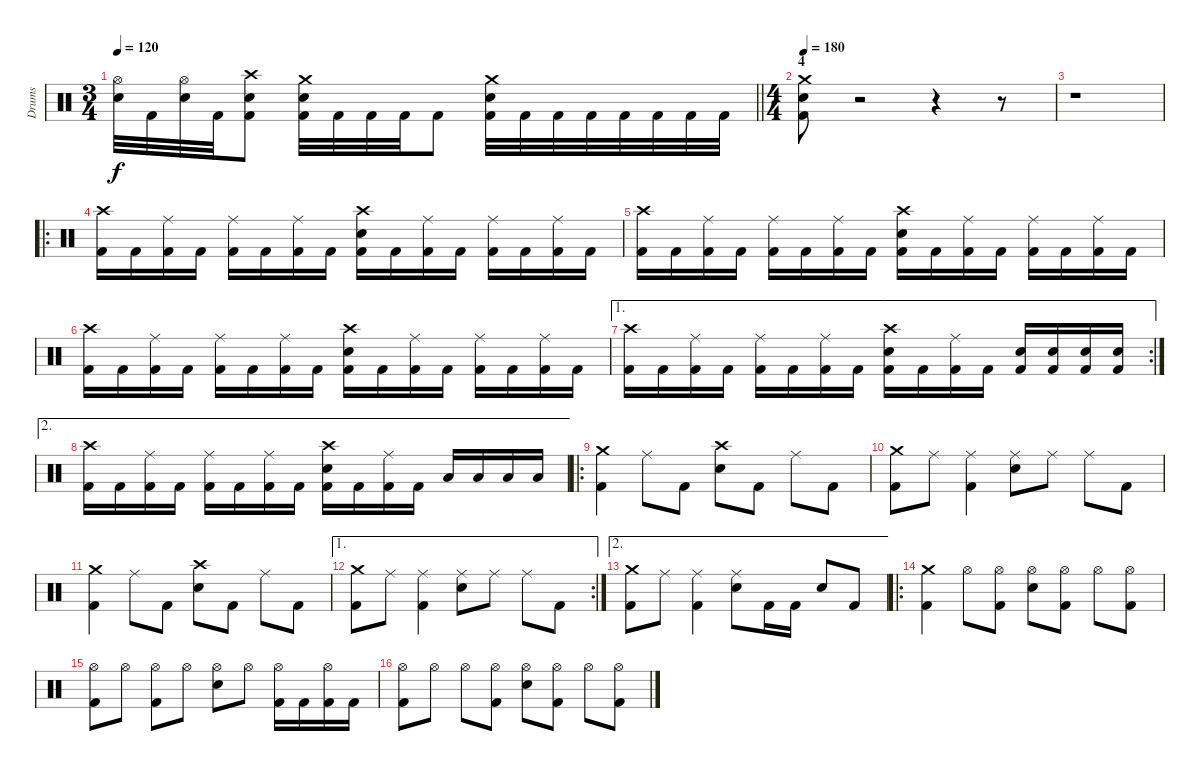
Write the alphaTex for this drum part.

\track ("Drums" "Drums") {instrument percussion}
\staff {score}
\articulation defaults
\ts (3 4)
\tempo 120
\clef neutral
\barLineRight lightlight
\ks c
("Hi-Hat (open)" "Electric Snare (hit)").32{dy f} "Kick (hit) 2".32 ("Hi-Hat (open)" "Electric Snare (hit)").32 "Kick (hit) 2".32 ("Electric Snare (hit)" "Crash high (hit)" "Kick (hit) 2").8 ("Crash medium (hit)" "Electric Snare (hit)" "Kick (hit) 2").32 "Kick (hit) 2".32 "Kick (hit) 2".32 "Kick (hit) 2".32 "Kick (hit) 2".8 ("Crash medium (hit)" "Electric Snare (hit)" "Kick (hit) 2").32 "Kick (hit) 2".32 "Kick (hit) 2".32 "Kick (hit) 2".32 "Kick (hit) 2".32 "Kick (hit) 2".32 "Kick (hit) 2".32 "Kick (hit) 2".32 |
\ts (4 4)
\section ("" "4")
\tempo 180
("Crash medium (hit)" "Electric Snare (hit)" "Kick (hit) 2").8 r.2 r.4 r.8 |
r.1 |
\ro
("Crash high (hit)" "Kick (hit) 2").16 "Kick (hit) 2".16 ("Ride (middle)" "Kick (hit) 2").16 "Kick (hit) 2".16 ("Ride (middle)" "Kick (hit) 2").16 "Kick (hit) 2".16 ("Ride (middle)" "Kick (hit) 2").16 "Kick (hit) 2".16 ("Electric Snare (hit)" "Crash high (hit)" "Kick (hit) 2").16 "Kick (hit) 2".16 ("Ride (middle)" "Kick (hit) 2").16 "Kick (hit) 2".16 ("Ride (middle)" "Kick (hit) 2").16 "Kick (hit) 2".16 ("Ride (middle)" "Kick (hit) 2").16 "Kick (hit) 2".16 |
("Crash high (hit)" "Kick (hit) 2").16 "Kick (hit) 2".16 ("Ride (middle)" "Kick (hit) 2").16 "Kick (hit) 2".16 ("Ride (middle)" "Kick (hit) 2").16 "Kick (hit) 2".16 ("Ride (middle)" "Kick (hit) 2").16 "Kick (hit) 2".16 ("Electric Snare (hit)" "Crash high (hit)" "Kick (hit) 2").16 "Kick (hit) 2".16 ("Ride (middle)" "Kick (hit) 2").16 "Kick (hit) 2".16 ("Ride (middle)" "Kick (hit) 2").16 "Kick (hit) 2".16 ("Ride (middle)" "Kick (hit) 2").16 "Kick (hit) 2".16 |
("Crash high (hit)" "Kick (hit) 2").16 "Kick (hit) 2".16 ("Ride (middle)" "Kick (hit) 2").16 "Kick (hit) 2".16 ("Ride (middle)" "Kick (hit) 2").16 "Kick (hit) 2".16 ("Ride (middle)" "Kick (hit) 2").16 "Kick (hit) 2".16 ("Electric Snare (hit)" "Crash high (hit)" "Kick (hit) 2").16 "Kick (hit) 2".16 ("Ride (middle)" "Kick (hit) 2").16 "Kick (hit) 2".16 ("Ride (middle)" "Kick (hit) 2").16 "Kick (hit) 2".16 ("Ride (middle)" "Kick (hit) 2").16 "Kick (hit) 2".16 |
\ae 1
\rc 2
("Crash high (hit)" "Kick (hit) 2").16 "Kick (hit) 2".16 ("Ride (middle)" "Kick (hit) 2").16 "Kick (hit) 2".16 ("Ride (middle)" "Kick (hit) 2").16 "Kick (hit) 2".16 ("Ride (middle)" "Kick (hit) 2").16 "Kick (hit) 2".16 ("Electric Snare (hit)" "Crash high (hit)" "Kick (hit) 2").16 "Kick (hit) 2".16 ("Ride (middle)" "Kick (hit) 2").16 "Kick (hit) 2".16 ("Electric Snare (hit)" "Kick (hit) 2").16 ("Electric Snare (hit)" "Kick (hit) 2").16 ("Electric Snare (hit)" "Kick (hit) 2").16 ("Electric Snare (hit)" "Kick (hit) 2").16 |
\ae 2
("Crash high (hit)" "Kick (hit) 2").16 "Kick (hit) 2".16 ("Ride (middle)" "Kick (hit) 2").16 "Kick (hit) 2".16 ("Ride (middle)" "Kick (hit) 2").16 "Kick (hit) 2".16 ("Ride (middle)" "Kick (hit) 2").16 "Kick (hit) 2".16 ("Electric Snare (hit)" "Crash high (hit)" "Kick (hit) 2").16 "Kick (hit) 2".16 ("Ride (middle)" "Kick (hit) 2").16 "Kick (hit) 2".16 "Low Tom (hit)".16 "Low Tom (hit)".16 "Low Tom (hit)".16 "Low Tom (hit)".16 |
\ro
("Crash medium (hit)" "Kick (hit) 2").4 "Ride (middle)".8 "Kick (hit) 2".8 ("Crash high (hit)" "Electric Snare (hit)").8 "Kick (hit) 2".8 "Ride (middle)".8 "Kick (hit) 2".8 |
("Crash medium (hit)" "Kick (hit) 2").8 "Ride (middle)".8 ("Ride (middle)" "Kick (hit) 2").4 ("Ride (middle)" "Electric Snare (hit)").8 "Ride (middle)".8 "Ride (middle)".8 "Kick (hit) 2".8 |
("Crash medium (hit)" "Kick (hit) 2").4 "Ride (middle)".8 "Kick (hit) 2".8 ("Crash high (hit)" "Electric Snare (hit)").8 "Kick (hit) 2".8 "Ride (middle)".8 "Kick (hit) 2".8 |
\ae 1
\rc 2
("Crash medium (hit)" "Kick (hit) 2").8 "Ride (middle)".8 ("Ride (middle)" "Kick (hit) 2").4 ("Ride (middle)" "Electric Snare (hit)").8 "Ride (middle)".8 "Ride (middle)".8 "Kick (hit) 2".8 |
\ae 2
("Crash medium (hit)" "Kick (hit) 2").8 "Ride (middle)".8 ("Ride (middle)" "Kick (hit) 2").4 ("Ride (middle)" "Electric Snare (hit)").8 "Kick (hit) 2".16 "Kick (hit) 2".16 "Electric Snare (hit)".8 "Kick (hit) 2".8 |
\ro
("Crash medium (hit)" "Kick (hit) 2").4 "Hi-Hat (open)".8 ("Hi-Hat (open)" "Kick (hit) 2").8 ("Hi-Hat (open)" "Electric Snare (hit)").8 ("Hi-Hat (open)" "Kick (hit) 2").8 "Hi-Hat (open)".8 ("Hi-Hat (open)" "Kick (hit) 2").8 |
("Hi-Hat (open)" "Kick (hit) 2").8 "Hi-Hat (open)".8 ("Hi-Hat (open)" "Kick (hit) 2").8 "Hi-Hat (open)".8 ("Hi-Hat (open)" "Electric Snare (hit)").8 "Hi-Hat (open)".8 ("Hi-Hat (open)" "Kick (hit) 2").16 "Kick (hit) 2".16 ("Hi-Hat (open)" "Kick (hit) 2").16 "Kick (hit) 2".16 |
("Hi-Hat (open)" "Kick (hit) 2").8 "Hi-Hat (open)".8 "Hi-Hat (open)".8 ("Hi-Hat (open)" "Kick (hit) 2").8 ("Hi-Hat (open)" "Electric Snare (hit)").8 ("Hi-Hat (open)" "Kick (hit) 2").8 "Hi-Hat (open)".8 ("Hi-Hat (open)" "Kick (hit) 2").8
